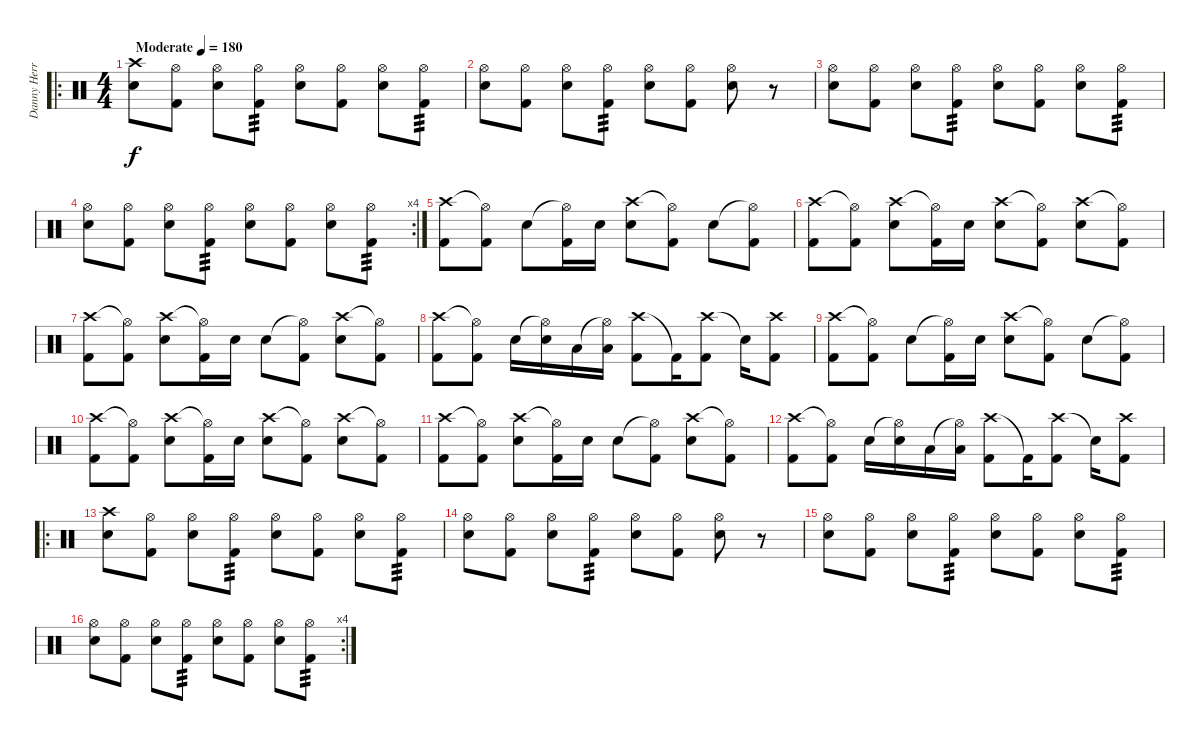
\track ("Danny Herrera" "Danny Herr") {instrument percussion}
\staff {score}
\articulation defaults
\ro
\ts (4 4)
\tempo (180 "Moderate")
\clef neutral
\ks c
("Crash high (hit)" "Snare (hit) 2").8{dy f} ("Hi-Hat (open)" "Kick (hit) 2").8 ("Hi-Hat (open)" "Snare (hit) 2").8 ("Hi-Hat (open)" "Kick (hit) 2").8{tp 3} ("Hi-Hat (open)" "Snare (hit) 2").8 ("Hi-Hat (open)" "Kick (hit) 2").8 ("Hi-Hat (open)" "Snare (hit) 2").8 ("Hi-Hat (open)" "Kick (hit) 2").8{tp 3} |
("Hi-Hat (open)" "Snare (hit) 2").8 ("Hi-Hat (open)" "Kick (hit) 2").8 ("Hi-Hat (open)" "Snare (hit) 2").8 ("Hi-Hat (open)" "Kick (hit) 2").8{tp 3} ("Hi-Hat (open)" "Snare (hit) 2").8 ("Hi-Hat (open)" "Kick (hit) 2").8 ("Hi-Hat (open)" "Snare (hit) 2").8 r.8 |
("Hi-Hat (open)" "Snare (hit) 2").8 ("Hi-Hat (open)" "Kick (hit) 2").8 ("Hi-Hat (open)" "Snare (hit) 2").8 ("Hi-Hat (open)" "Kick (hit) 2").8{tp 3} ("Hi-Hat (open)" "Snare (hit) 2").8 ("Hi-Hat (open)" "Kick (hit) 2").8 ("Hi-Hat (open)" "Snare (hit) 2").8 ("Hi-Hat (open)" "Kick (hit) 2").8{tp 3} |
\rc 4
("Hi-Hat (open)" "Snare (hit) 2").8 ("Hi-Hat (open)" "Kick (hit) 2").8 ("Hi-Hat (open)" "Snare (hit) 2").8 ("Hi-Hat (open)" "Kick (hit) 2").8{tp 3} ("Hi-Hat (open)" "Snare (hit) 2").8 ("Hi-Hat (open)" "Kick (hit) 2").8 ("Hi-Hat (open)" "Snare (hit) 2").8 ("Hi-Hat (open)" "Kick (hit) 2").8{tp 3} |
("Crash high (hit)" "Kick (hit) 2").8 ("Hi-Hat (open)"{t} "Kick (hit) 2").8 "Snare (hit) 2".8 ("Hi-Hat (open)"{t} "Kick (hit) 2").16 "Snare (hit) 2".16 ("Crash high (hit)" "Snare (hit) 2").8 ("Hi-Hat (open)"{t} "Kick (hit) 2").8 "Snare (hit) 2".8 ("Hi-Hat (open)"{t} "Kick (hit) 2").8 |
("Crash high (hit)" "Kick (hit) 2").8 ("Hi-Hat (open)"{t} "Kick (hit) 2").8 ("Crash high (hit)" "Snare (hit) 2").8 ("Hi-Hat (open)"{t} "Kick (hit) 2").16 "Snare (hit) 2".16 ("Crash high (hit)" "Snare (hit) 2").8 ("Hi-Hat (open)"{t} "Kick (hit) 2").8 ("Crash high (hit)" "Snare (hit) 2").8 ("Hi-Hat (open)"{t} "Kick (hit) 2").8 |
("Crash high (hit)" "Kick (hit) 2").8 ("Hi-Hat (open)"{t} "Kick (hit) 2").8 ("Crash high (hit)" "Snare (hit) 2").8 ("Hi-Hat (open)"{t} "Kick (hit) 2").16 "Snare (hit) 2".16 "Snare (hit) 2".8 ("Hi-Hat (open)"{t} "Kick (hit) 2").8 ("Crash high (hit)" "Snare (hit) 2").8 ("Hi-Hat (open)"{t} "Kick (hit) 2").8 |
("Crash high (hit)" "Kick (hit) 2").8 ("Hi-Hat (open)"{t} "Kick (hit) 2").8 "Snare (hit) 2".16 ("Hi-Hat (open)"{t} "Snare (hit) 2").16 "Low Tom (hit)".16 ("Hi-Hat (open)"{t} "Low Tom (hit)").16 ("Crash high (hit)" "Kick (hit) 2").8 "Kick (hit) 2"{t}.16 ("Crash high (hit)" "Kick (hit) 2").8 "Snare (hit)"{t}.16 ("Crash high (hit)" "Kick (hit) 2").8 |
("Crash high (hit)" "Kick (hit) 2").8 ("Hi-Hat (open)"{t} "Kick (hit) 2").8 "Snare (hit) 2".8 ("Hi-Hat (open)"{t} "Kick (hit) 2").16 "Snare (hit) 2".16 ("Crash high (hit)" "Snare (hit) 2").8 ("Hi-Hat (open)"{t} "Kick (hit) 2").8 "Snare (hit) 2".8 ("Hi-Hat (open)"{t} "Kick (hit) 2").8 |
("Crash high (hit)" "Kick (hit) 2").8 ("Hi-Hat (open)"{t} "Kick (hit) 2").8 ("Crash high (hit)" "Snare (hit) 2").8 ("Hi-Hat (open)"{t} "Kick (hit) 2").16 "Snare (hit) 2".16 ("Crash high (hit)" "Snare (hit) 2").8 ("Hi-Hat (open)"{t} "Kick (hit) 2").8 ("Crash high (hit)" "Snare (hit) 2").8 ("Hi-Hat (open)"{t} "Kick (hit) 2").8 |
("Crash high (hit)" "Kick (hit) 2").8 ("Hi-Hat (open)"{t} "Kick (hit) 2").8 ("Crash high (hit)" "Snare (hit) 2").8 ("Hi-Hat (open)"{t} "Kick (hit) 2").16 "Snare (hit) 2".16 "Snare (hit) 2".8 ("Hi-Hat (open)"{t} "Kick (hit) 2").8 ("Crash high (hit)" "Snare (hit) 2").8 ("Hi-Hat (open)"{t} "Kick (hit) 2").8 |
("Crash high (hit)" "Kick (hit) 2").8 ("Hi-Hat (open)"{t} "Kick (hit) 2").8 "Snare (hit) 2".16 ("Hi-Hat (open)"{t} "Snare (hit) 2").16 "Low Tom (hit)".16 ("Hi-Hat (open)"{t} "Low Tom (hit)").16 ("Crash high (hit)" "Kick (hit) 2").8 "Kick (hit) 2"{t}.16 ("Crash high (hit)" "Kick (hit) 2").8 "Snare (hit)"{t}.16 ("Crash high (hit)" "Kick (hit) 2").8 |
\ro
("Crash high (hit)" "Snare (hit) 2").8 ("Hi-Hat (open)" "Kick (hit) 2").8 ("Hi-Hat (open)" "Snare (hit) 2").8 ("Hi-Hat (open)" "Kick (hit) 2").8{tp 3} ("Hi-Hat (open)" "Snare (hit) 2").8 ("Hi-Hat (open)" "Kick (hit) 2").8 ("Hi-Hat (open)" "Snare (hit) 2").8 ("Hi-Hat (open)" "Kick (hit) 2").8{tp 3} |
("Hi-Hat (open)" "Snare (hit) 2").8 ("Hi-Hat (open)" "Kick (hit) 2").8 ("Hi-Hat (open)" "Snare (hit) 2").8 ("Hi-Hat (open)" "Kick (hit) 2").8{tp 3} ("Hi-Hat (open)" "Snare (hit) 2").8 ("Hi-Hat (open)" "Kick (hit) 2").8 ("Hi-Hat (open)" "Snare (hit) 2").8 r.8 |
("Hi-Hat (open)" "Snare (hit) 2").8 ("Hi-Hat (open)" "Kick (hit) 2").8 ("Hi-Hat (open)" "Snare (hit) 2").8 ("Hi-Hat (open)" "Kick (hit) 2").8{tp 3} ("Hi-Hat (open)" "Snare (hit) 2").8 ("Hi-Hat (open)" "Kick (hit) 2").8 ("Hi-Hat (open)" "Snare (hit) 2").8 ("Hi-Hat (open)" "Kick (hit) 2").8{tp 3} |
\rc 4
("Hi-Hat (open)" "Snare (hit) 2").8 ("Hi-Hat (open)" "Kick (hit) 2").8 ("Hi-Hat (open)" "Snare (hit) 2").8 ("Hi-Hat (open)" "Kick (hit) 2").8{tp 3} ("Hi-Hat (open)" "Snare (hit) 2").8 ("Hi-Hat (open)" "Kick (hit) 2").8 ("Hi-Hat (open)" "Snare (hit) 2").8 ("Hi-Hat (open)" "Kick (hit) 2").8{tp 3}
